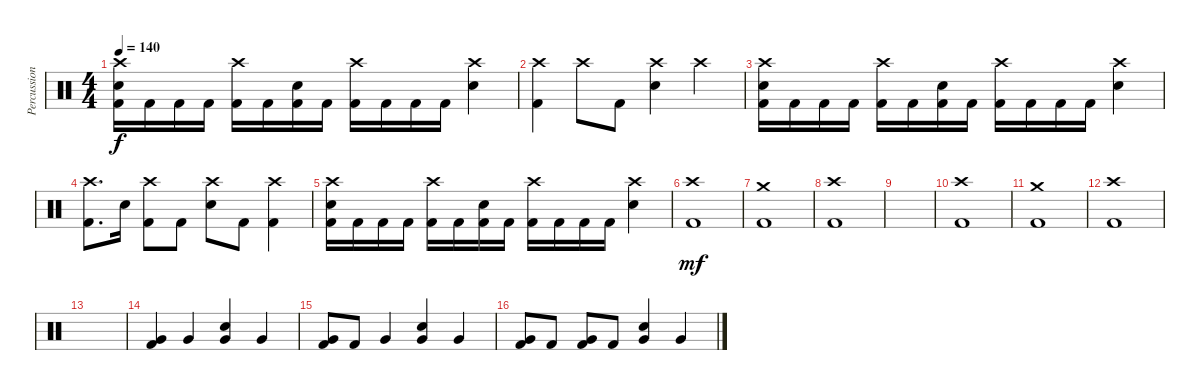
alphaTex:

\track ("Percussion" "Percussion") {instrument percussion}
\staff {score}
\articulation defaults
\ts (4 4)
\tempo 140
\clef neutral
\ks c
("Crash high (hit)" "Snare (hit) 2" "Kick (hit) 2").16{dy f} "Kick (hit) 2".16 "Kick (hit) 2".16 "Kick (hit) 2".16 ("Crash high (hit)" "Kick (hit) 2").16 "Kick (hit) 2".16 ("Snare (hit) 2" "Kick (hit) 2").16 "Kick (hit) 2".16 ("Crash high (hit)" "Kick (hit) 2").16 "Kick (hit) 2".16 "Kick (hit) 2".16 "Kick (hit) 2".16 ("Crash high (hit)" "Snare (hit) 2").4 |
("Crash high (hit)" "Kick (hit) 2").4 "Crash high (hit)".8 "Kick (hit) 2".8 ("Crash high (hit)" "Snare (hit) 2").4 "Crash high (hit)".4 |
("Crash high (hit)" "Snare (hit) 2" "Kick (hit) 2").16 "Kick (hit) 2".16 "Kick (hit) 2".16 "Kick (hit) 2".16 ("Crash high (hit)" "Kick (hit) 2").16 "Kick (hit) 2".16 ("Snare (hit) 2" "Kick (hit) 2").16 "Kick (hit) 2".16 ("Crash high (hit)" "Kick (hit) 2").16 "Kick (hit) 2".16 "Kick (hit) 2".16 "Kick (hit) 2".16 ("Crash high (hit)" "Snare (hit) 2").4 |
("Crash high (hit)" "Kick (hit) 2").8{d} "Snare (hit) 2".16 ("Crash high (hit)" "Kick (hit) 2").8 "Kick (hit) 2".8 ("Crash high (hit)" "Snare (hit) 2").8 "Kick (hit) 2".8 ("Crash high (hit)" "Kick (hit) 2").4 |
("Crash high (hit)" "Snare (hit) 2" "Kick (hit) 2").16 "Kick (hit) 2".16 "Kick (hit) 2".16 "Kick (hit) 2".16 ("Crash high (hit)" "Kick (hit) 2").16 "Kick (hit) 2".16 ("Snare (hit) 2" "Kick (hit) 2").16 "Kick (hit) 2".16 ("Crash high (hit)" "Kick (hit) 2").16 "Kick (hit) 2".16 "Kick (hit) 2".16 "Kick (hit) 2".16 ("Crash high (hit)" "Snare (hit) 2").4 |
("Crash high (hit)" "Kick (hit) 2").1{dy mf} |
("Crash medium (hit)" "Kick (hit) 2").1 |
("Crash high (hit)" "Kick (hit) 2").1 |
|
("Crash high (hit)" "Kick (hit) 2").1 |
("Crash medium (hit)" "Kick (hit) 2").1 |
("Crash high (hit)" "Kick (hit) 2").1 |
|
("Very Low Tom (hit)" "Kick (hit) 2").4 "Very Low Tom (hit)".4 ("Very Low Tom (hit)" "Snare (hit) 2").4 "Very Low Tom (hit)".4 |
("Very Low Tom (hit)" "Kick (hit) 2").8 "Kick (hit) 2".8 "Very Low Tom (hit)".4 ("Very Low Tom (hit)" "Snare (hit) 2").4 "Very Low Tom (hit)".4 |
("Very Low Tom (hit)" "Kick (hit) 2").8 "Kick (hit) 2".8 ("Very Low Tom (hit)" "Kick (hit) 2").8 "Kick (hit) 2".8 ("Very Low Tom (hit)" "Snare (hit) 2").4 "Very Low Tom (hit)".4
